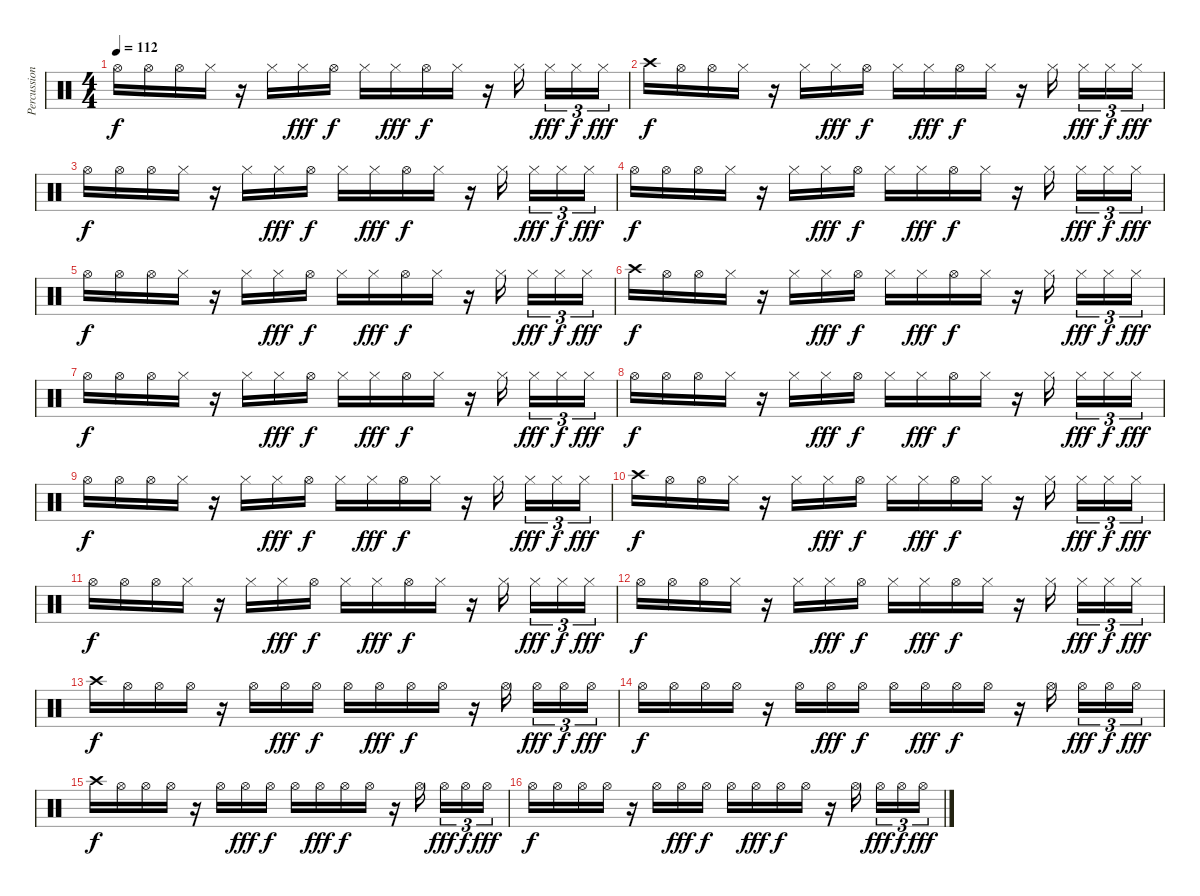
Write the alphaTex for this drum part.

\track ("Percussion" "Percussion") {instrument percussion}
\staff {score}
\articulation defaults
\ts (4 4)
\tempo 112
\clef neutral
\ks c "Hi-Hat (open)".16{dy f} "Hi-Hat (open)".16 "Hi-Hat (open)".16 "Hi-Hat (closed)".16
r.16 "Hi-Hat (closed)".16 "Hi-Hat (closed)".16{dy fff} "Hi-Hat (open)".16{dy f} "Hi-Hat (closed)".16 "Hi-Hat (closed)".16{dy fff} "Hi-Hat (open)".16{dy f} "Hi-Hat (closed)".16 r.16 "Hi-Hat (closed)".16{beam splitsecondary} "Hi-Hat (closed)".16{tu (3 2) dy fff} "Hi-Hat (closed)".16{tu (3 2) dy f} "Hi-Hat (closed)".16{tu (3 2) dy fff} |
"Crash high (hit)".16{dy f} "Hi-Hat (open)".16 "Hi-Hat (open)".16 "Hi-Hat (closed)".16 r.16 "Hi-Hat (closed)".16 "Hi-Hat (closed)".16{dy fff} "Hi-Hat (open)".16{dy f} "Hi-Hat (closed)".16 "Hi-Hat (closed)".16{dy fff} "Hi-Hat (open)".16{dy f} "Hi-Hat (closed)".16 r.16 "Hi-Hat (closed)".16{beam splitsecondary} "Hi-Hat (closed)".16{tu (3 2) dy fff} "Hi-Hat (closed)".16{tu (3 2) dy f} "Hi-Hat (closed)".16{tu (3 2) dy fff} |
"Hi-Hat (open)".16{dy f} "Hi-Hat (open)".16 "Hi-Hat (open)".16 "Hi-Hat (closed)".16 r.16 "Hi-Hat (closed)".16 "Hi-Hat (closed)".16{dy fff} "Hi-Hat (open)".16{dy f} "Hi-Hat (closed)".16 "Hi-Hat (closed)".16{dy fff} "Hi-Hat (open)".16{dy f} "Hi-Hat (closed)".16 r.16 "Hi-Hat (closed)".16{beam splitsecondary} "Hi-Hat (closed)".16{tu (3 2) dy fff} "Hi-Hat (closed)".16{tu (3 2) dy f} "Hi-Hat (closed)".16{tu (3 2) dy fff} |
"Hi-Hat (open)".16{dy f} "Hi-Hat (open)".16 "Hi-Hat (open)".16 "Hi-Hat (closed)".16 r.16 "Hi-Hat (closed)".16 "Hi-Hat (closed)".16{dy fff} "Hi-Hat (open)".16{dy f} "Hi-Hat (closed)".16 "Hi-Hat (closed)".16{dy fff} "Hi-Hat (open)".16{dy f} "Hi-Hat (closed)".16 r.16 "Hi-Hat (closed)".16{beam splitsecondary} "Hi-Hat (closed)".16{tu (3 2) dy fff} "Hi-Hat (closed)".16{tu (3 2) dy f} "Hi-Hat (closed)".16{tu (3 2) dy fff} |
"Hi-Hat (open)".16{dy f} "Hi-Hat (open)".16 "Hi-Hat (open)".16 "Hi-Hat (closed)".16 r.16 "Hi-Hat (closed)".16 "Hi-Hat (closed)".16{dy fff} "Hi-Hat (open)".16{dy f} "Hi-Hat (closed)".16 "Hi-Hat (closed)".16{dy fff} "Hi-Hat (open)".16{dy f} "Hi-Hat (closed)".16 r.16 "Hi-Hat (closed)".16{beam splitsecondary} "Hi-Hat (closed)".16{tu (3 2) dy fff} "Hi-Hat (closed)".16{tu (3 2) dy f} "Hi-Hat (closed)".16{tu (3 2) dy fff} |
"Crash high (hit)".16{dy f} "Hi-Hat (open)".16 "Hi-Hat (open)".16 "Hi-Hat (closed)".16 r.16 "Hi-Hat (closed)".16 "Hi-Hat (closed)".16{dy fff} "Hi-Hat (open)".16{dy f} "Hi-Hat (closed)".16 "Hi-Hat (closed)".16{dy fff} "Hi-Hat (open)".16{dy f} "Hi-Hat (closed)".16 r.16 "Hi-Hat (closed)".16{beam splitsecondary} "Hi-Hat (closed)".16{tu (3 2) dy fff} "Hi-Hat (closed)".16{tu (3 2) dy f} "Hi-Hat (closed)".16{tu (3 2) dy fff} |
"Hi-Hat (open)".16{dy f} "Hi-Hat (open)".16 "Hi-Hat (open)".16 "Hi-Hat (closed)".16 r.16 "Hi-Hat (closed)".16 "Hi-Hat (closed)".16{dy fff} "Hi-Hat (open)".16{dy f} "Hi-Hat (closed)".16 "Hi-Hat (closed)".16{dy fff} "Hi-Hat (open)".16{dy f} "Hi-Hat (closed)".16 r.16 "Hi-Hat (closed)".16{beam splitsecondary} "Hi-Hat (closed)".16{tu (3 2) dy fff} "Hi-Hat (closed)".16{tu (3 2) dy f} "Hi-Hat (closed)".16{tu (3 2) dy fff} |
"Hi-Hat (open)".16{dy f} "Hi-Hat (open)".16 "Hi-Hat (open)".16 "Hi-Hat (closed)".16 r.16 "Hi-Hat (closed)".16 "Hi-Hat (closed)".16{dy fff} "Hi-Hat (open)".16{dy f} "Hi-Hat (closed)".16 "Hi-Hat (closed)".16{dy fff} "Hi-Hat (open)".16{dy f} "Hi-Hat (closed)".16 r.16 "Hi-Hat (closed)".16{beam splitsecondary} "Hi-Hat (closed)".16{tu (3 2) dy fff} "Hi-Hat (closed)".16{tu (3 2) dy f} "Hi-Hat (closed)".16{tu (3 2) dy fff} |
"Hi-Hat (open)".16{dy f} "Hi-Hat (open)".16 "Hi-Hat (open)".16 "Hi-Hat (closed)".16 r.16 "Hi-Hat (closed)".16 "Hi-Hat (closed)".16{dy fff} "Hi-Hat (open)".16{dy f} "Hi-Hat (closed)".16 "Hi-Hat (closed)".16{dy fff} "Hi-Hat (open)".16{dy f} "Hi-Hat (closed)".16 r.16 "Hi-Hat (closed)".16{beam splitsecondary} "Hi-Hat (closed)".16{tu (3 2) dy fff} "Hi-Hat (closed)".16{tu (3 2) dy f} "Hi-Hat (closed)".16{tu (3 2) dy fff} |
"Crash high (hit)".16{dy f} "Hi-Hat (open)".16 "Hi-Hat (open)".16 "Hi-Hat (closed)".16 r.16 "Hi-Hat (closed)".16 "Hi-Hat (closed)".16{dy fff} "Hi-Hat (open)".16{dy f} "Hi-Hat (closed)".16 "Hi-Hat (closed)".16{dy fff} "Hi-Hat (open)".16{dy f} "Hi-Hat (closed)".16 r.16 "Hi-Hat (closed)".16{beam splitsecondary} "Hi-Hat (closed)".16{tu (3 2) dy fff} "Hi-Hat (closed)".16{tu (3 2) dy f} "Hi-Hat (closed)".16{tu (3 2) dy fff} |
"Hi-Hat (open)".16{dy f} "Hi-Hat (open)".16 "Hi-Hat (open)".16 "Hi-Hat (closed)".16 r.16 "Hi-Hat (closed)".16 "Hi-Hat (closed)".16{dy fff} "Hi-Hat (open)".16{dy f} "Hi-Hat (closed)".16 "Hi-Hat (closed)".16{dy fff} "Hi-Hat (open)".16{dy f} "Hi-Hat (closed)".16 r.16 "Hi-Hat (closed)".16{beam splitsecondary} "Hi-Hat (closed)".16{tu (3 2) dy fff} "Hi-Hat (closed)".16{tu (3 2) dy f} "Hi-Hat (closed)".16{tu (3 2) dy fff} |
"Hi-Hat (open)".16{dy f} "Hi-Hat (open)".16 "Hi-Hat (open)".16 "Hi-Hat (closed)".16 r.16 "Hi-Hat (closed)".16 "Hi-Hat (closed)".16{dy fff} "Hi-Hat (open)".16{dy f} "Hi-Hat (closed)".16 "Hi-Hat (closed)".16{dy fff} "Hi-Hat (open)".16{dy f} "Hi-Hat (closed)".16 r.16 "Hi-Hat (closed)".16{beam splitsecondary} "Hi-Hat (closed)".16{tu (3 2) dy fff} "Hi-Hat (closed)".16{tu (3 2) dy f} "Hi-Hat (closed)".16{tu (3 2) dy fff} |
"Crash high (hit)".16{dy f} "Hi-Hat (open)".16 "Hi-Hat (open)".16 "Hi-Hat (open)".16 r.16 "Hi-Hat (open)".16 "Hi-Hat (open)".16{dy fff} "Hi-Hat (open)".16{dy f} "Hi-Hat (open)".16 "Hi-Hat (open)".16{dy fff} "Hi-Hat (open)".16{dy f} "Hi-Hat (open)".16 r.16 "Hi-Hat (open)".16{beam splitsecondary} "Hi-Hat (open)".16{tu (3 2) dy fff} "Hi-Hat (open)".16{tu (3 2) dy f} "Hi-Hat (open)".16{tu (3 2) dy fff} |
"Hi-Hat (open)".16{dy f} "Hi-Hat (open)".16 "Hi-Hat (open)".16 "Hi-Hat (open)".16 r.16 "Hi-Hat (open)".16 "Hi-Hat (open)".16{dy fff} "Hi-Hat (open)".16{dy f} "Hi-Hat (open)".16 "Hi-Hat (open)".16{dy fff} "Hi-Hat (open)".16{dy f} "Hi-Hat (open)".16 r.16 "Hi-Hat (open)".16{beam splitsecondary} "Hi-Hat (open)".16{tu (3 2) dy fff} "Hi-Hat (open)".16{tu (3 2) dy f} "Hi-Hat (open)".16{tu (3 2) dy fff} |
"Crash high (hit)".16{dy f} "Hi-Hat (open)".16 "Hi-Hat (open)".16 "Hi-Hat (open)".16 r.16 "Hi-Hat (open)".16 "Hi-Hat (open)".16{dy fff} "Hi-Hat (open)".16{dy f} "Hi-Hat (open)".16 "Hi-Hat (open)".16{dy fff} "Hi-Hat (open)".16{dy f} "Hi-Hat (open)".16 r.16 "Hi-Hat (open)".16{beam splitsecondary} "Hi-Hat (open)".16{tu (3 2) dy fff} "Hi-Hat (open)".16{tu (3 2) dy f} "Hi-Hat (open)".16{tu (3 2) dy fff} |
"Hi-Hat (open)".16{dy f} "Hi-Hat (open)".16 "Hi-Hat (open)".16 "Hi-Hat (open)".16 r.16 "Hi-Hat (open)".16 "Hi-Hat (open)".16{dy fff} "Hi-Hat (open)".16{dy f} "Hi-Hat (open)".16 "Hi-Hat (open)".16{dy fff} "Hi-Hat (open)".16{dy f} "Hi-Hat (open)".16 r.16 "Hi-Hat (open)".16{beam splitsecondary} "Hi-Hat (open)".16{tu (3 2) dy fff} "Hi-Hat (open)".16{tu (3 2) dy f} "Hi-Hat (open)".16{tu (3 2) dy fff}
